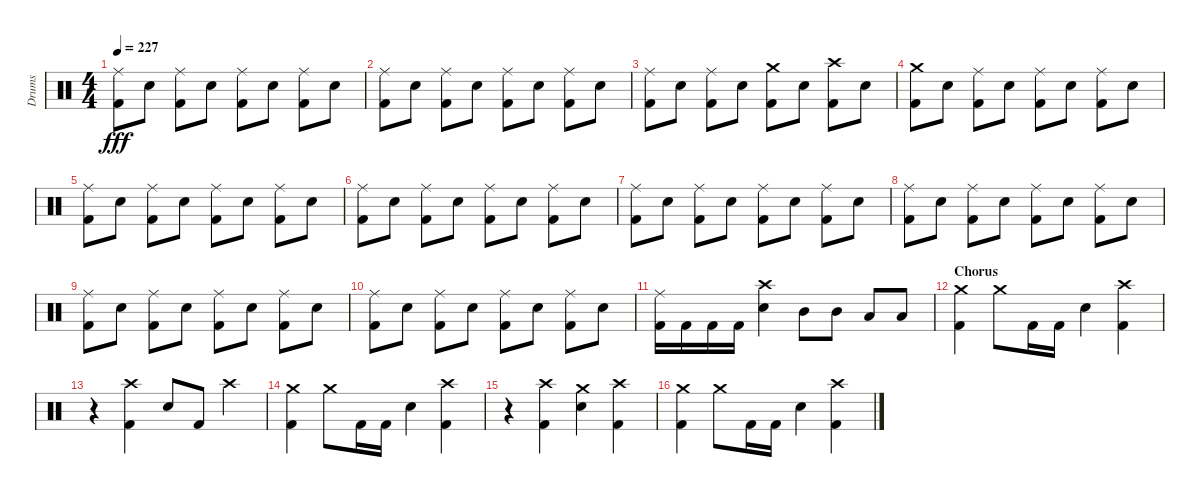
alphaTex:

\track ("Drums" "Drums") {instrument percussion}
\staff {score}
\articulation defaults
\ts (4 4)
\tempo 227
\clef neutral
\ks c
("Kick (hit) 2" "Ride (middle)").8{dy fff} "Electric Snare (hit)".8 ("Kick (hit) 2" "Ride (middle)").8 "Electric Snare (hit)".8 ("Kick (hit) 2" "Ride (middle)").8 "Electric Snare (hit)".8 ("Kick (hit) 2" "Ride (middle)").8 "Electric Snare (hit)".8 |
("Kick (hit) 2" "Ride (middle)").8 "Electric Snare (hit)".8 ("Kick (hit) 2" "Ride (middle)").8 "Electric Snare (hit)".8 ("Kick (hit) 2" "Ride (middle)").8 "Electric Snare (hit)".8 ("Kick (hit) 2" "Ride (middle)").8 "Electric Snare (hit)".8 |
("Kick (hit) 2" "Ride (middle)").8 "Electric Snare (hit)".8 ("Kick (hit) 2" "Ride (middle)").8 "Electric Snare (hit)".8 ("Kick (hit) 2" "Crash medium (hit)").8 "Electric Snare (hit)".8 ("Kick (hit) 2" "Crash high (hit)").8 "Electric Snare (hit)".8 |
("Kick (hit) 2" "Crash medium (hit)").8 "Electric Snare (hit)".8 ("Kick (hit) 2" "Ride (middle)").8 "Electric Snare (hit)".8 ("Kick (hit) 2" "Ride (middle)").8 "Electric Snare (hit)".8 ("Kick (hit) 2" "Ride (middle)").8 "Electric Snare (hit)".8 |
("Kick (hit) 2" "Ride (middle)").8 "Electric Snare (hit)".8 ("Kick (hit) 2" "Ride (middle)").8 "Electric Snare (hit)".8 ("Kick (hit) 2" "Ride (middle)").8 "Electric Snare (hit)".8 ("Kick (hit) 2" "Ride (middle)").8 "Electric Snare (hit)".8 |
("Kick (hit) 2" "Ride (middle)").8 "Electric Snare (hit)".8 ("Kick (hit) 2" "Ride (middle)").8 "Electric Snare (hit)".8 ("Kick (hit) 2" "Ride (middle)").8 "Electric Snare (hit)".8 ("Kick (hit) 2" "Ride (middle)").8 "Electric Snare (hit)".8 |
("Kick (hit) 2" "Ride (middle)").8 "Electric Snare (hit)".8 ("Kick (hit) 2" "Ride (middle)").8 "Electric Snare (hit)".8 ("Kick (hit) 2" "Ride (middle)").8 "Electric Snare (hit)".8 ("Kick (hit) 2" "Ride (middle)").8 "Electric Snare (hit)".8 |
("Kick (hit) 2" "Ride (middle)").8 "Electric Snare (hit)".8 ("Kick (hit) 2" "Ride (middle)").8 "Electric Snare (hit)".8 ("Kick (hit) 2" "Ride (middle)").8 "Electric Snare (hit)".8 ("Kick (hit) 2" "Ride (middle)").8 "Electric Snare (hit)".8 |
("Kick (hit) 2" "Ride (middle)").8 "Electric Snare (hit)".8 ("Kick (hit) 2" "Ride (middle)").8 "Electric Snare (hit)".8 ("Kick (hit) 2" "Ride (middle)").8 "Electric Snare (hit)".8 ("Kick (hit) 2" "Ride (middle)").8 "Electric Snare (hit)".8 |
("Kick (hit) 2" "Ride (middle)").8 "Electric Snare (hit)".8 ("Kick (hit) 2" "Ride (middle)").8 "Electric Snare (hit)".8 ("Kick (hit) 2" "Ride (middle)").8 "Electric Snare (hit)".8 ("Kick (hit) 2" "Ride (middle)").8 "Electric Snare (hit)".8 |
("Kick (hit) 2" "Ride (middle)").16 "Kick (hit) 2".16 "Kick (hit) 2".16 "Kick (hit) 2".16 ("Electric Snare (hit)" "Crash high (hit)").4 "Mid Tom (hit)".8 "Mid Tom (hit)".8 "Low Tom (hit)".8 "Low Tom (hit)".8 |
\section ("" "Chorus")
("Kick (hit) 2" "Crash medium (hit)").4 "Crash medium (hit)".8 "Kick (hit) 2".16 "Kick (hit) 2".16 "Electric Snare (hit)".4 ("Kick (hit) 2" "Crash high (hit)").4 |
r.4 ("Kick (hit) 2" "Crash high (hit)").4 "Electric Snare (hit)".8 "Kick (hit) 2".8 "Crash high (hit)".4 |
("Kick (hit) 2" "Crash medium (hit)").4 "Crash medium (hit)".8 "Kick (hit) 2".16 "Kick (hit) 2".16 "Electric Snare (hit)".4 ("Kick (hit) 2" "Crash high (hit)").4 |
r.4 ("Kick (hit) 2" "Crash high (hit)").4 ("Electric Snare (hit)" "Crash medium (hit)").4 ("Kick (hit) 2" "Crash high (hit)").4 |
("Kick (hit) 2" "Crash medium (hit)").4 "Crash medium (hit)".8 "Kick (hit) 2".16 "Kick (hit) 2".16 "Electric Snare (hit)".4 ("Kick (hit) 2" "Crash high (hit)").4
